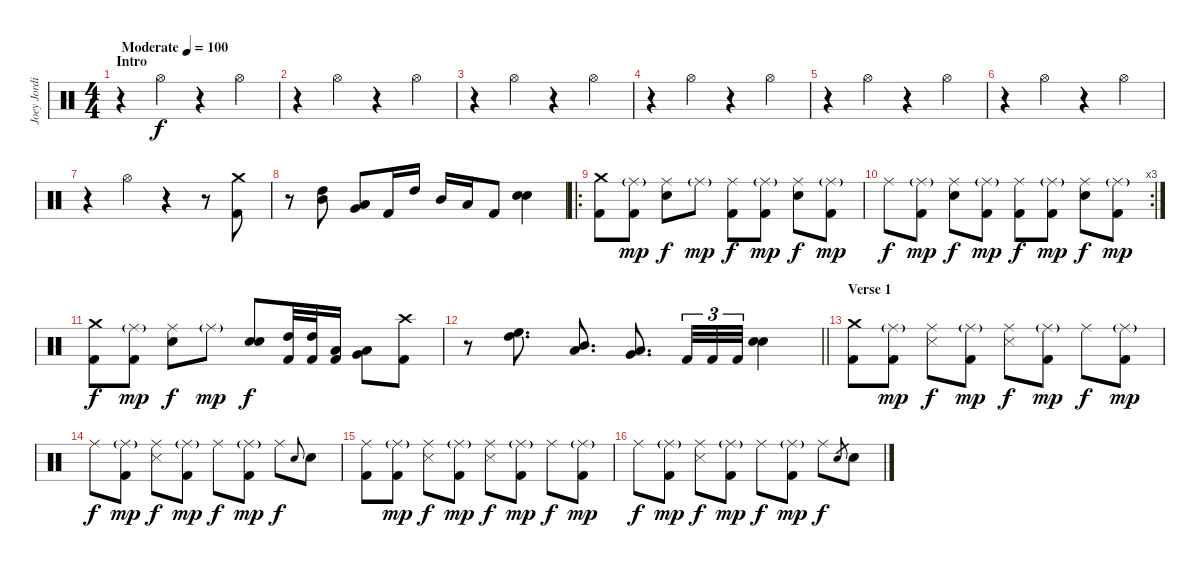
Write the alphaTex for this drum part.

\track ("Joey Jordison" "Joey Jordi") {instrument percussion}
\staff {score}
\articulation defaults
\ts (4 4)
\section ("" "Intro")
\tempo (100 "Moderate")
\clef neutral
\ks c
r.4{dy f} "Hi-Hat (open)".4 r.4 "Hi-Hat (open)".4 |
r.4 "Hi-Hat (open)".4 r.4 "Hi-Hat (open)".4 |
r.4 "Hi-Hat (open)".4 r.4 "Hi-Hat (open)".4 |
r.4 "Hi-Hat (open)".4 r.4 "Hi-Hat (open)".4 |
r.4 "Hi-Hat (open)".4 r.4 "Hi-Hat (open)".4 |
r.4 "Hi-Hat (open)".4 r.4 "Hi-Hat (open)".4 |
r.4 "Hi-Hat (open)".4 r.4 r.8 ("Crash medium (hit)" "Kick (hit) 2").8 |
r.8 ("High Tom (hit)" "Mid Tom (hit)").8 ("Low Tom (hit)" "Very Low Tom (hit)").8 "Kick (hit) 2".16 "High Tom (hit)".16 "Mid Tom (hit)".16 "Low Tom (hit)".16 "Kick (hit) 2".8 ("Electric Snare (hit)" "Electric Snare (hit)").4 |
\ro
("Crash medium (hit)" "Kick (hit) 2").8 ("Ride (middle)"{g} "Kick (hit) 2").8{dy mp} ("Ride (middle)" "Electric Snare (hit)").8{dy f} "Ride (middle)"{g}.8{dy mp} ("Ride (middle)" "Kick (hit) 2").8{dy f} ("Ride (middle)"{g} "Kick (hit) 2").8{dy mp} ("Ride (middle)" "Electric Snare (hit)").8{dy f} ("Ride (middle)"{g} "Kick (hit) 2").8{dy mp} |
\rc 3 "Ride (middle)".8{dy f}
("Ride (middle)"{g} "Kick (hit) 2").8{dy mp} ("Ride (middle)" "Electric Snare (hit)").8{dy f} ("Ride (middle)"{g} "Kick (hit) 2").8{dy mp} ("Ride (middle)" "Kick (hit) 2").8{dy f} ("Ride (middle)"{g} "Kick (hit) 2").8{dy mp} ("Ride (middle)" "Electric Snare (hit)").8{dy f} ("Ride (middle)"{g} "Kick (hit) 2").8{dy mp} |
("Crash medium (hit)" "Kick (hit) 2").8{dy f} ("Ride (middle)"{g} "Kick (hit) 2").8{dy mp} ("Ride (middle)" "Electric Snare (hit)").8{dy f} "Ride (middle)"{g}.8{dy mp} ("Electric Snare (hit)" "Electric Snare (hit)").8{dy f} ("High Tom (hit)" "Kick (hit) 2").32 ("High Tom (hit)" "Kick (hit) 2").32 ("Low Tom (hit)" "Kick (hit) 2").16 ("Very Low Tom (hit)" "Low Floor Tom (hit)").8 ("Crash high (hit)" "Kick (hit) 2").8 |
\barLineRight lightlight
r.8 ("High Floor Tom (hit)" "High Tom (hit)").8{d} ("Mid Tom (hit)" "Low Tom (hit)").8{d} ("Very Low Tom (hit)" "Low Floor Tom (hit)").8{d} "Kick (hit) 2".32{tu (3 2)} "Kick (hit) 2".32{tu (3 2)} "Kick (hit) 2".32{tu (3 2)} ("Electric Snare (hit)" "Electric Snare (hit)").4 |
\section ("" "Verse 1")
("Crash medium (hit)" "Kick (hit) 2").8 ("Ride (middle)"{g} "Kick (hit) 2").8{dy mp} ("Ride (middle)" "Snare (side stick) 3").8{dy f} ("Ride (middle)"{g} "Kick (hit) 2").8{dy mp} ("Ride (middle)" "Snare (side stick) 3").8{dy f} ("Ride (middle)"{g} "Kick (hit) 2").8{dy mp} "Ride (middle)".8{dy f} ("Ride (middle)"{g} "Kick (hit) 2").8{dy mp} |
"Ride (middle)".8{dy f} ("Ride (middle)"{g} "Kick (hit) 2").8{dy mp} ("Ride (middle)" "Snare (side stick) 3").8{dy f} ("Ride (middle)"{g} "Kick (hit) 2").8{dy mp} "Ride (middle)".8{dy f} ("Ride (middle)"{g} "Kick (hit) 2").8{dy mp} "Ride (middle)".8{dy f} "Electric Snare (hit)".8{gr onbeat} "Electric Snare (hit)".8 |
("Ride (middle)" "Kick (hit) 2").8 ("Ride (middle)"{g} "Kick (hit) 2").8{dy mp} ("Ride (middle)" "Snare (side stick) 3").8{dy f} ("Ride (middle)"{g} "Kick (hit) 2").8{dy mp} ("Ride (middle)" "Snare (side stick) 3").8{dy f} ("Ride (middle)"{g} "Kick (hit) 2").8{dy mp} "Ride (middle)".8{dy f} ("Ride (middle)"{g} "Kick (hit) 2").8{dy mp} |
"Ride (middle)".8{dy f} ("Ride (middle)"{g} "Kick (hit) 2").8{dy mp} ("Ride (middle)" "Snare (side stick) 3").8{dy f} ("Ride (middle)"{g} "Kick (hit) 2").8{dy mp} "Ride (middle)".8{dy f} ("Ride (middle)"{g} "Kick (hit) 2").8{dy mp} "Ride (middle)".8{dy f} "Electric Snare (hit)".8{gr} "Electric Snare (hit)".8
